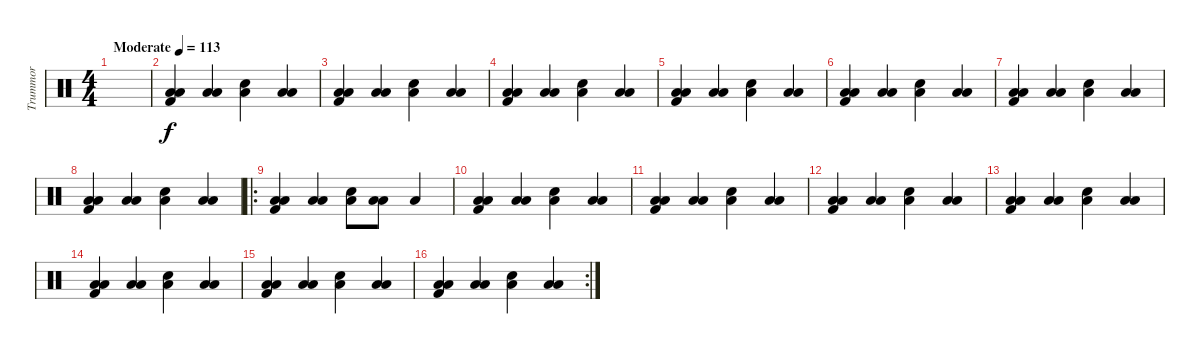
\track ("Trummor" "Trummor") {instrument percussion}
\staff {score}
\articulation defaults
\ts (4 4)
\tempo (113 "Moderate")
\clef neutral
\ks c
|
("Low Floor Tom (hit)" "Low Floor Tom (hit)" "Kick (hit) 2").4 ("Low Floor Tom (hit)" "Low Floor Tom (hit)").4 ("Low Floor Tom (hit)" "Snare (hit) 2").4 ("Low Floor Tom (hit)" "Low Floor Tom (hit)").4 |
("Low Floor Tom (hit)" "Low Floor Tom (hit)" "Kick (hit) 2").4 ("Low Floor Tom (hit)" "Low Floor Tom (hit)").4 ("Low Floor Tom (hit)" "Snare (hit) 2").4 ("Low Floor Tom (hit)" "Low Floor Tom (hit)").4 |
("Low Floor Tom (hit)" "Low Floor Tom (hit)" "Kick (hit) 2").4 ("Low Floor Tom (hit)" "Low Floor Tom (hit)").4 ("Low Floor Tom (hit)" "Snare (hit) 2").4 ("Low Floor Tom (hit)" "Low Floor Tom (hit)").4 |
("Low Floor Tom (hit)" "Low Floor Tom (hit)" "Kick (hit) 2").4 ("Low Floor Tom (hit)" "Low Floor Tom (hit)").4 ("Low Floor Tom (hit)" "Snare (hit) 2").4 ("Low Floor Tom (hit)" "Low Floor Tom (hit)").4 |
("Low Floor Tom (hit)" "Low Floor Tom (hit)" "Kick (hit) 2").4 ("Low Floor Tom (hit)" "Low Floor Tom (hit)").4 ("Low Floor Tom (hit)" "Snare (hit) 2").4 ("Low Floor Tom (hit)" "Low Floor Tom (hit)").4 |
("Low Floor Tom (hit)" "Low Floor Tom (hit)" "Kick (hit) 2").4 ("Low Floor Tom (hit)" "Low Floor Tom (hit)").4 ("Low Floor Tom (hit)" "Snare (hit) 2").4 ("Low Floor Tom (hit)" "Low Floor Tom (hit)").4 |
("Low Floor Tom (hit)" "Low Floor Tom (hit)" "Kick (hit) 2").4 ("Low Floor Tom (hit)" "Low Floor Tom (hit)").4 ("Low Floor Tom (hit)" "Snare (hit) 2").4 ("Low Floor Tom (hit)" "Low Floor Tom (hit)").4 |
\ro
("Low Floor Tom (hit)" "Low Floor Tom (hit)" "Kick (hit) 2").4 ("Low Floor Tom (hit)" "Low Floor Tom (hit)").4 ("Low Floor Tom (hit)" "Snare (hit) 2").8 ("Low Floor Tom (hit)" "Low Floor Tom (hit)").8 "Low Floor Tom (hit)".4 |
("Low Floor Tom (hit)" "Low Floor Tom (hit)" "Kick (hit) 2").4 ("Low Floor Tom (hit)" "Low Floor Tom (hit)").4 ("Low Floor Tom (hit)" "Snare (hit) 2").4 ("Low Floor Tom (hit)" "Low Floor Tom (hit)").4 |
("Low Floor Tom (hit)" "Low Floor Tom (hit)" "Kick (hit) 2").4 ("Low Floor Tom (hit)" "Low Floor Tom (hit)").4 ("Low Floor Tom (hit)" "Snare (hit) 2").4 ("Low Floor Tom (hit)" "Low Floor Tom (hit)").4 |
("Low Floor Tom (hit)" "Low Floor Tom (hit)" "Kick (hit) 2").4 ("Low Floor Tom (hit)" "Low Floor Tom (hit)").4 ("Low Floor Tom (hit)" "Snare (hit) 2").4 ("Low Floor Tom (hit)" "Low Floor Tom (hit)").4 |
("Low Floor Tom (hit)" "Low Floor Tom (hit)" "Kick (hit) 2").4 ("Low Floor Tom (hit)" "Low Floor Tom (hit)").4 ("Low Floor Tom (hit)" "Snare (hit) 2").4 ("Low Floor Tom (hit)" "Low Floor Tom (hit)").4 |
("Low Floor Tom (hit)" "Low Floor Tom (hit)" "Kick (hit) 2").4 ("Low Floor Tom (hit)" "Low Floor Tom (hit)").4 ("Low Floor Tom (hit)" "Snare (hit) 2").4 ("Low Floor Tom (hit)" "Low Floor Tom (hit)").4 |
("Low Floor Tom (hit)" "Low Floor Tom (hit)" "Kick (hit) 2").4 ("Low Floor Tom (hit)" "Low Floor Tom (hit)").4 ("Low Floor Tom (hit)" "Snare (hit) 2").4 ("Low Floor Tom (hit)" "Low Floor Tom (hit)").4 |
\rc 2
("Low Floor Tom (hit)" "Low Floor Tom (hit)" "Kick (hit) 2").4 ("Low Floor Tom (hit)" "Low Floor Tom (hit)").4 ("Low Floor Tom (hit)" "Snare (hit) 2").4 ("Low Floor Tom (hit)" "Low Floor Tom (hit)").4
